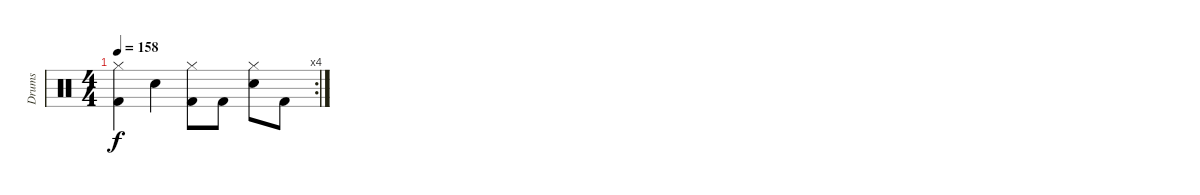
\track ("Drums" "Drums") {instrument percussion}
\staff {score}
\articulation defaults
\rc 4
\ts (4 4)
\tempo 158
\clef neutral
\ks c
("Hi-Hat (closed)" "Kick (hit) 2").4{dy f} "Snare (hit) 2".4 ("Hi-Hat (closed)" "Kick (hit) 2").8 "Kick (hit) 2".8 ("Hi-Hat (closed)" "Snare (hit) 2").8 "Kick (hit) 2".8
